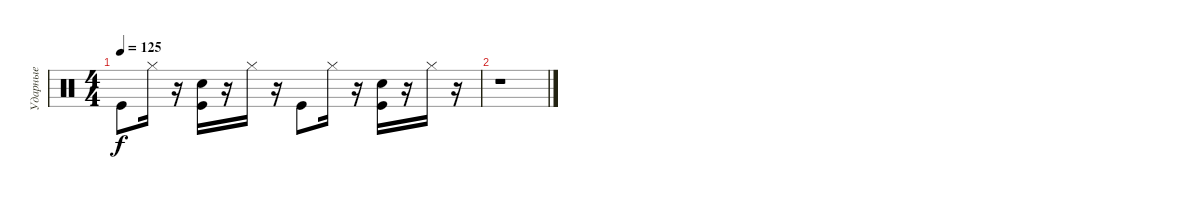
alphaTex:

\track ("Ударные" "Ударные") {instrument percussion}
\staff {score}
\articulation defaults
\ts (4 4)
\tempo 125
\clef neutral
\ks c "Kick (hit)".8{dy f} "Hi-Hat (closed)".16
r.16 ("Snare (hit) 2" "Kick (hit)").16 r.16 "Hi-Hat (closed)".16 r.16 "Kick (hit)".8 "Hi-Hat (closed)".16 r.16 ("Snare (hit) 2" "Kick (hit)").16 r.16 "Hi-Hat (closed)".16 r.16 |
r.1
